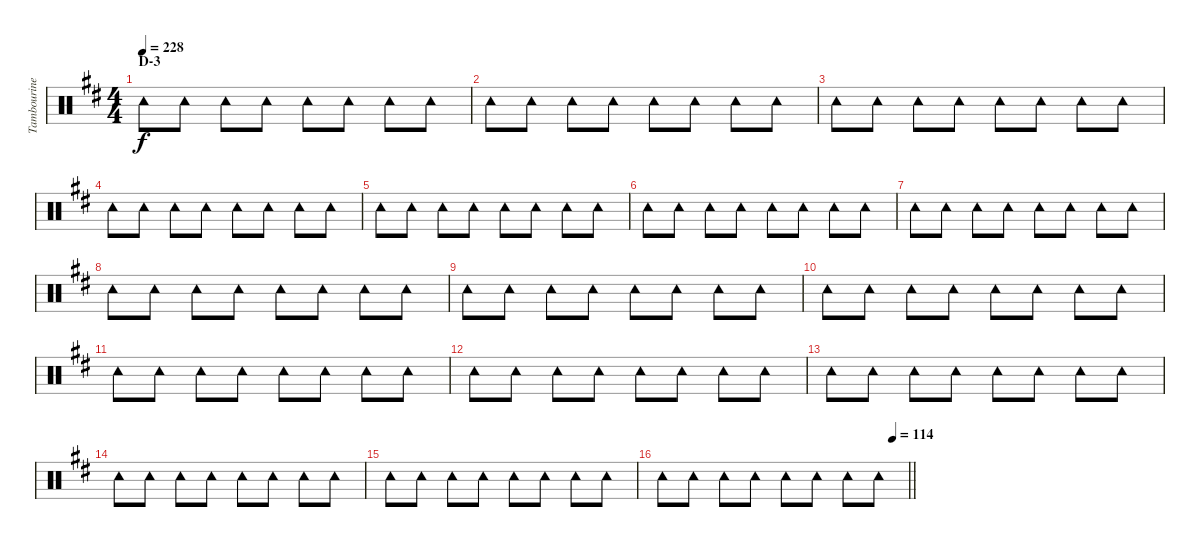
\track ("Tambourine" "Tambourine") {instrument percussion}
\staff {score}
\articulation defaults
\ts (4 4)
\section ("" "D-3")
\tempo 228
\clef neutral
\ks d "Tambourine (hit)".8{dy f} "Tambourine (hit)".8 "Tambourine (hit)".8 "Tambourine (hit)".8 "Tambourine (hit)".8 "Tambourine (hit)".8 "Tambourine (hit)".8 "Tambourine (hit)".8
|
"Tambourine (hit)".8 "Tambourine (hit)".8 "Tambourine (hit)".8 "Tambourine (hit)".8 "Tambourine (hit)".8 "Tambourine (hit)".8 "Tambourine (hit)".8 "Tambourine (hit)".8 |
"Tambourine (hit)".8 "Tambourine (hit)".8 "Tambourine (hit)".8 "Tambourine (hit)".8 "Tambourine (hit)".8 "Tambourine (hit)".8 "Tambourine (hit)".8 "Tambourine (hit)".8 |
"Tambourine (hit)".8 "Tambourine (hit)".8 "Tambourine (hit)".8 "Tambourine (hit)".8 "Tambourine (hit)".8 "Tambourine (hit)".8 "Tambourine (hit)".8 "Tambourine (hit)".8 |
"Tambourine (hit)".8 "Tambourine (hit)".8 "Tambourine (hit)".8 "Tambourine (hit)".8 "Tambourine (hit)".8 "Tambourine (hit)".8 "Tambourine (hit)".8 "Tambourine (hit)".8 |
"Tambourine (hit)".8 "Tambourine (hit)".8 "Tambourine (hit)".8 "Tambourine (hit)".8 "Tambourine (hit)".8 "Tambourine (hit)".8 "Tambourine (hit)".8 "Tambourine (hit)".8 |
"Tambourine (hit)".8 "Tambourine (hit)".8 "Tambourine (hit)".8 "Tambourine (hit)".8 "Tambourine (hit)".8 "Tambourine (hit)".8 "Tambourine (hit)".8 "Tambourine (hit)".8 |
"Tambourine (hit)".8 "Tambourine (hit)".8 "Tambourine (hit)".8 "Tambourine (hit)".8 "Tambourine (hit)".8 "Tambourine (hit)".8 "Tambourine (hit)".8 "Tambourine (hit)".8 |
"Tambourine (hit)".8 "Tambourine (hit)".8 "Tambourine (hit)".8 "Tambourine (hit)".8 "Tambourine (hit)".8 "Tambourine (hit)".8 "Tambourine (hit)".8 "Tambourine (hit)".8 |
"Tambourine (hit)".8 "Tambourine (hit)".8 "Tambourine (hit)".8 "Tambourine (hit)".8 "Tambourine (hit)".8 "Tambourine (hit)".8 "Tambourine (hit)".8 "Tambourine (hit)".8 |
"Tambourine (hit)".8 "Tambourine (hit)".8 "Tambourine (hit)".8 "Tambourine (hit)".8 "Tambourine (hit)".8 "Tambourine (hit)".8 "Tambourine (hit)".8 "Tambourine (hit)".8 |
"Tambourine (hit)".8 "Tambourine (hit)".8 "Tambourine (hit)".8 "Tambourine (hit)".8 "Tambourine (hit)".8 "Tambourine (hit)".8 "Tambourine (hit)".8 "Tambourine (hit)".8 |
"Tambourine (hit)".8 "Tambourine (hit)".8 "Tambourine (hit)".8 "Tambourine (hit)".8 "Tambourine (hit)".8 "Tambourine (hit)".8 "Tambourine (hit)".8 "Tambourine (hit)".8 |
"Tambourine (hit)".8 "Tambourine (hit)".8 "Tambourine (hit)".8 "Tambourine (hit)".8 "Tambourine (hit)".8 "Tambourine (hit)".8 "Tambourine (hit)".8 "Tambourine (hit)".8 |
"Tambourine (hit)".8 "Tambourine (hit)".8 "Tambourine (hit)".8 "Tambourine (hit)".8 "Tambourine (hit)".8 "Tambourine (hit)".8 "Tambourine (hit)".8 "Tambourine (hit)".8 |
\tempo (114 0.9375)
\barLineRight lightlight "Tambourine (hit)".8 "Tambourine (hit)".8 "Tambourine (hit)".8 "Tambourine (hit)".8 "Tambourine (hit)".8 "Tambourine (hit)".8 "Tambourine (hit)".8 "Tambourine (hit)".8
